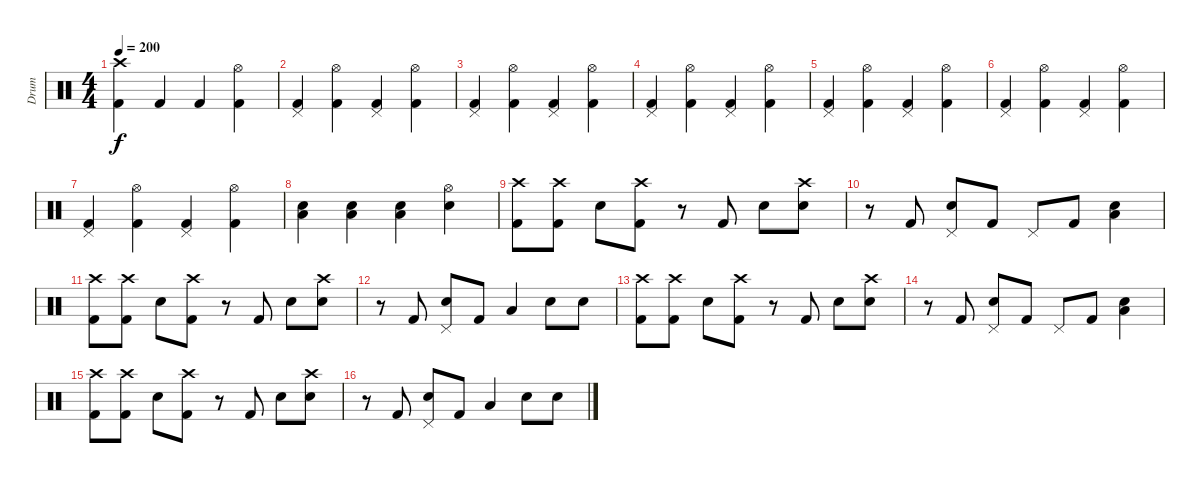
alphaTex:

\track ("Drum" "Drum") {instrument percussion}
\staff {score}
\articulation defaults
\ts (4 4)
\tempo 200
\clef neutral
\ks c
("Crash high (hit)" "Kick (hit) 2").4{dy f} "Kick (hit) 2".4 "Kick (hit) 2".4 ("Hi-Hat (open)" "Kick (hit) 2").4 |
("Pedal Hi-Hat (hit)" "Kick (hit) 2").4 ("Hi-Hat (open)" "Kick (hit) 2").4 ("Pedal Hi-Hat (hit)" "Kick (hit) 2").4 ("Hi-Hat (open)" "Kick (hit) 2").4 |
("Pedal Hi-Hat (hit)" "Kick (hit) 2").4 ("Hi-Hat (open)" "Kick (hit) 2").4 ("Pedal Hi-Hat (hit)" "Kick (hit) 2").4 ("Hi-Hat (open)" "Kick (hit) 2").4 |
("Pedal Hi-Hat (hit)" "Kick (hit) 2").4 ("Hi-Hat (open)" "Kick (hit) 2").4 ("Pedal Hi-Hat (hit)" "Kick (hit) 2").4 ("Hi-Hat (open)" "Kick (hit) 2").4 |
("Pedal Hi-Hat (hit)" "Kick (hit) 2").4 ("Hi-Hat (open)" "Kick (hit) 2").4 ("Pedal Hi-Hat (hit)" "Kick (hit) 2").4 ("Hi-Hat (open)" "Kick (hit) 2").4 |
("Pedal Hi-Hat (hit)" "Kick (hit) 2").4 ("Hi-Hat (open)" "Kick (hit) 2").4 ("Pedal Hi-Hat (hit)" "Kick (hit) 2").4 ("Hi-Hat (open)" "Kick (hit) 2").4 |
("Pedal Hi-Hat (hit)" "Kick (hit) 2").4 ("Hi-Hat (open)" "Kick (hit) 2").4 ("Pedal Hi-Hat (hit)" "Kick (hit) 2").4 ("Hi-Hat (open)" "Kick (hit) 2").4 |
("Electric Snare (hit)" "Low Floor Tom (hit)").4 ("Electric Snare (hit)" "Low Floor Tom (hit)").4 ("Electric Snare (hit)" "Low Floor Tom (hit)").4 ("Hi-Hat (open)" "Electric Snare (hit)").4 |
("Crash high (hit)" "Kick (hit) 2").8 ("Crash high (hit)" "Kick (hit) 2").8 "Electric Snare (hit)".8 ("Crash high (hit)" "Kick (hit) 2").8 r.8 "Kick (hit) 2".8 "Electric Snare (hit)".8 ("Crash high (hit)" "Electric Snare (hit)").8 |
r.8 "Kick (hit) 2".8 ("Pedal Hi-Hat (hit)" "Electric Snare (hit)").8 "Kick (hit) 2".8 "Pedal Hi-Hat (hit)".8 "Kick (hit) 2".8 ("Electric Snare (hit)" "Low Floor Tom (hit)").4 |
("Crash high (hit)" "Kick (hit) 2").8 ("Crash high (hit)" "Kick (hit) 2").8 "Electric Snare (hit)".8 ("Crash high (hit)" "Kick (hit) 2").8 r.8 "Kick (hit) 2".8 "Electric Snare (hit)".8 ("Crash high (hit)" "Electric Snare (hit)").8 |
r.8 "Kick (hit) 2".8 ("Pedal Hi-Hat (hit)" "Electric Snare (hit)").8 "Kick (hit) 2".8 "Low Floor Tom (hit)".4 "Electric Snare (hit)".8 "Electric Snare (hit)".8 |
("Crash high (hit)" "Kick (hit) 2").8 ("Crash high (hit)" "Kick (hit) 2").8 "Electric Snare (hit)".8 ("Crash high (hit)" "Kick (hit) 2").8 r.8 "Kick (hit) 2".8 "Electric Snare (hit)".8 ("Crash high (hit)" "Electric Snare (hit)").8 |
r.8 "Kick (hit) 2".8 ("Pedal Hi-Hat (hit)" "Electric Snare (hit)").8 "Kick (hit) 2".8 "Pedal Hi-Hat (hit)".8 "Kick (hit) 2".8 ("Electric Snare (hit)" "Low Floor Tom (hit)").4 |
("Crash high (hit)" "Kick (hit) 2").8 ("Crash high (hit)" "Kick (hit) 2").8 "Electric Snare (hit)".8 ("Crash high (hit)" "Kick (hit) 2").8 r.8 "Kick (hit) 2".8 "Electric Snare (hit)".8 ("Crash high (hit)" "Electric Snare (hit)").8 |
r.8 "Kick (hit) 2".8 ("Pedal Hi-Hat (hit)" "Electric Snare (hit)").8 "Kick (hit) 2".8 "Low Floor Tom (hit)".4 "Electric Snare (hit)".8 "Electric Snare (hit)".8
